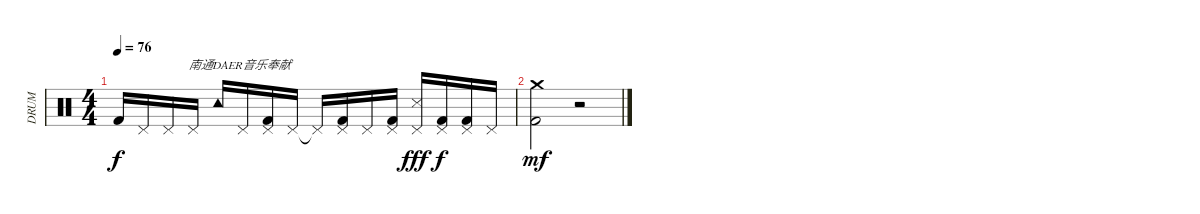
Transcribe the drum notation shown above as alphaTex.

\track ("DRUM" "DRUM") {instrument percussion}
\staff {score}
\articulation defaults
\ts (4 4)
\tempo 76
\clef neutral
\ks c "Kick (hit) 2".16{dy f} "Pedal Hi-Hat (hit)".16{txt "               南通DAER音乐奉献"} "Pedal Hi-Hat (hit)".16 "Pedal Hi-Hat (hit)".16 "Tambourine (hit)".16 "Pedal Hi-Hat (hit)".16
("Pedal Hi-Hat (hit)" "Kick (hit) 2").16 "Pedal Hi-Hat (hit)".16 "Pedal Hi-Hat (hit)"{t}.16 ("Pedal Hi-Hat (hit)" "Kick (hit) 2").16 "Pedal Hi-Hat (hit)".16 ("Pedal Hi-Hat (hit)" "Kick (hit) 2").16 ("Pedal Hi-Hat (hit)" "Snare (side stick) 3").16{dy fff} ("Pedal Hi-Hat (hit)" "Kick (hit) 2").16{dy f} ("Pedal Hi-Hat (hit)" "Kick (hit) 2").16 "Pedal Hi-Hat (hit)".16 |
("Crash medium (hit)" "Kick (hit) 2").2{dy mf} r.2
